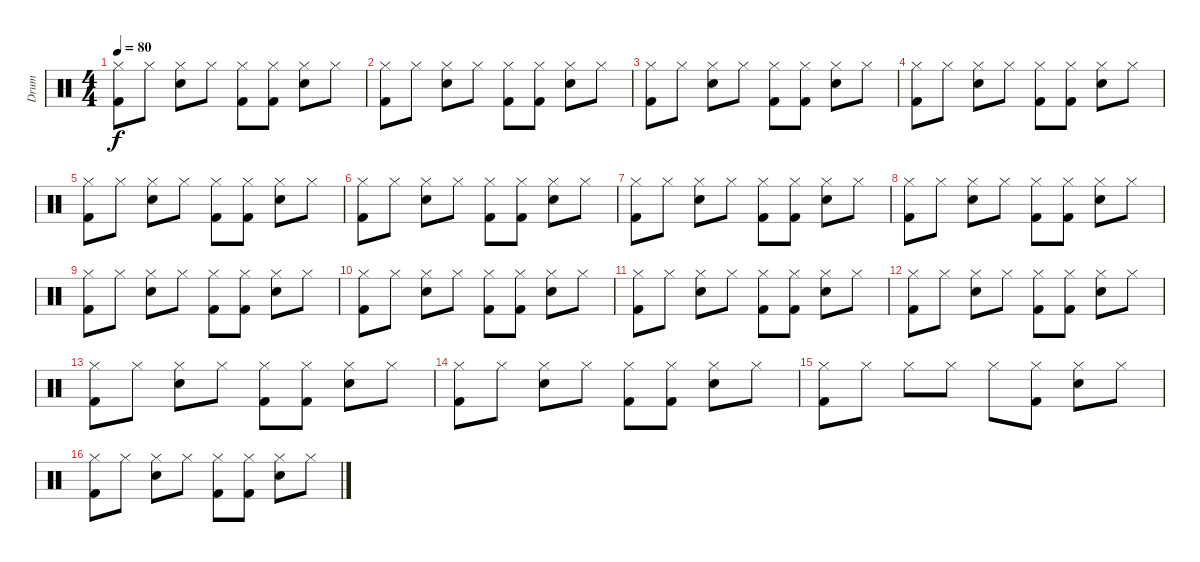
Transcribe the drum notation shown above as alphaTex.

\track ("Drum" "Drum") {instrument percussion}
\staff {score}
\articulation defaults
\ts (4 4)
\tempo 80
\clef neutral
\ks c
("Hi-Hat (closed)" "Kick (hit) 2").8{dy f} "Hi-Hat (closed)".8 ("Hi-Hat (closed)" "Electric Snare (hit)").8 "Hi-Hat (closed)".8 ("Hi-Hat (closed)" "Kick (hit) 2").8 ("Hi-Hat (closed)" "Kick (hit) 2").8 ("Hi-Hat (closed)" "Electric Snare (hit)").8 "Hi-Hat (closed)".8 |
("Hi-Hat (closed)" "Kick (hit) 2").8 "Hi-Hat (closed)".8 ("Hi-Hat (closed)" "Electric Snare (hit)").8 "Hi-Hat (closed)".8 ("Hi-Hat (closed)" "Kick (hit) 2").8 ("Hi-Hat (closed)" "Kick (hit) 2").8 ("Hi-Hat (closed)" "Electric Snare (hit)").8 "Hi-Hat (closed)".8 |
("Hi-Hat (closed)" "Kick (hit) 2").8 "Hi-Hat (closed)".8 ("Hi-Hat (closed)" "Electric Snare (hit)").8 "Hi-Hat (closed)".8 ("Hi-Hat (closed)" "Kick (hit) 2").8 ("Hi-Hat (closed)" "Kick (hit) 2").8 ("Hi-Hat (closed)" "Electric Snare (hit)").8 "Hi-Hat (closed)".8 |
("Hi-Hat (closed)" "Kick (hit) 2").8 "Hi-Hat (closed)".8 ("Hi-Hat (closed)" "Electric Snare (hit)").8 "Hi-Hat (closed)".8 ("Hi-Hat (closed)" "Kick (hit) 2").8 ("Hi-Hat (closed)" "Kick (hit) 2").8 ("Hi-Hat (closed)" "Electric Snare (hit)").8 "Hi-Hat (closed)".8 |
("Hi-Hat (closed)" "Kick (hit) 2").8 "Hi-Hat (closed)".8 ("Hi-Hat (closed)" "Electric Snare (hit)").8 "Hi-Hat (closed)".8 ("Hi-Hat (closed)" "Kick (hit) 2").8 ("Hi-Hat (closed)" "Kick (hit) 2").8 ("Hi-Hat (closed)" "Electric Snare (hit)").8 "Hi-Hat (closed)".8 |
("Hi-Hat (closed)" "Kick (hit) 2").8 "Hi-Hat (closed)".8 ("Hi-Hat (closed)" "Electric Snare (hit)").8 "Hi-Hat (closed)".8 ("Hi-Hat (closed)" "Kick (hit) 2").8 ("Hi-Hat (closed)" "Kick (hit) 2").8 ("Hi-Hat (closed)" "Electric Snare (hit)").8 "Hi-Hat (closed)".8 |
("Hi-Hat (closed)" "Kick (hit) 2").8 "Hi-Hat (closed)".8 ("Hi-Hat (closed)" "Electric Snare (hit)").8 "Hi-Hat (closed)".8 ("Hi-Hat (closed)" "Kick (hit) 2").8 ("Hi-Hat (closed)" "Kick (hit) 2").8 ("Hi-Hat (closed)" "Electric Snare (hit)").8 "Hi-Hat (closed)".8 |
("Hi-Hat (closed)" "Kick (hit) 2").8 "Hi-Hat (closed)".8 ("Hi-Hat (closed)" "Electric Snare (hit)").8 "Hi-Hat (closed)".8 ("Hi-Hat (closed)" "Kick (hit) 2").8 ("Hi-Hat (closed)" "Kick (hit) 2").8 ("Hi-Hat (closed)" "Electric Snare (hit)").8 "Hi-Hat (closed)".8 |
("Hi-Hat (closed)" "Kick (hit) 2").8 "Hi-Hat (closed)".8 ("Hi-Hat (closed)" "Electric Snare (hit)").8 "Hi-Hat (closed)".8 ("Hi-Hat (closed)" "Kick (hit) 2").8 ("Hi-Hat (closed)" "Kick (hit) 2").8 ("Hi-Hat (closed)" "Electric Snare (hit)").8 "Hi-Hat (closed)".8 |
("Hi-Hat (closed)" "Kick (hit) 2").8 "Hi-Hat (closed)".8 ("Hi-Hat (closed)" "Electric Snare (hit)").8 "Hi-Hat (closed)".8 ("Hi-Hat (closed)" "Kick (hit) 2").8 ("Hi-Hat (closed)" "Kick (hit) 2").8 ("Hi-Hat (closed)" "Electric Snare (hit)").8 "Hi-Hat (closed)".8 |
("Hi-Hat (closed)" "Kick (hit) 2").8 "Hi-Hat (closed)".8 ("Hi-Hat (closed)" "Electric Snare (hit)").8 "Hi-Hat (closed)".8 ("Hi-Hat (closed)" "Kick (hit) 2").8 ("Hi-Hat (closed)" "Kick (hit) 2").8 ("Hi-Hat (closed)" "Electric Snare (hit)").8 "Hi-Hat (closed)".8 |
("Hi-Hat (closed)" "Kick (hit) 2").8 "Hi-Hat (closed)".8 ("Hi-Hat (closed)" "Electric Snare (hit)").8 "Hi-Hat (closed)".8 ("Hi-Hat (closed)" "Kick (hit) 2").8 ("Hi-Hat (closed)" "Kick (hit) 2").8 ("Hi-Hat (closed)" "Electric Snare (hit)").8 "Hi-Hat (closed)".8 |
("Hi-Hat (closed)" "Kick (hit) 2").8 "Hi-Hat (closed)".8 ("Hi-Hat (closed)" "Electric Snare (hit)").8 "Hi-Hat (closed)".8 ("Hi-Hat (closed)" "Kick (hit) 2").8 ("Hi-Hat (closed)" "Kick (hit) 2").8 ("Hi-Hat (closed)" "Electric Snare (hit)").8 "Hi-Hat (closed)".8 |
("Hi-Hat (closed)" "Kick (hit) 2").8 "Hi-Hat (closed)".8 ("Hi-Hat (closed)" "Electric Snare (hit)").8 "Hi-Hat (closed)".8 ("Hi-Hat (closed)" "Kick (hit) 2").8 ("Hi-Hat (closed)" "Kick (hit) 2").8 ("Hi-Hat (closed)" "Electric Snare (hit)").8 "Hi-Hat (closed)".8 |
("Hi-Hat (closed)" "Kick (hit) 2").8 "Hi-Hat (closed)".8 "Hi-Hat (closed)".8 "Hi-Hat (closed)".8 "Hi-Hat (closed)".8 ("Hi-Hat (closed)" "Kick (hit) 2").8 ("Hi-Hat (closed)" "Electric Snare (hit)").8 "Hi-Hat (closed)".8 |
("Hi-Hat (closed)" "Kick (hit) 2").8 "Hi-Hat (closed)".8 ("Hi-Hat (closed)" "Electric Snare (hit)").8 "Hi-Hat (closed)".8 ("Hi-Hat (closed)" "Kick (hit) 2").8 ("Hi-Hat (closed)" "Kick (hit) 2").8 ("Hi-Hat (closed)" "Electric Snare (hit)").8 "Hi-Hat (closed)".8
